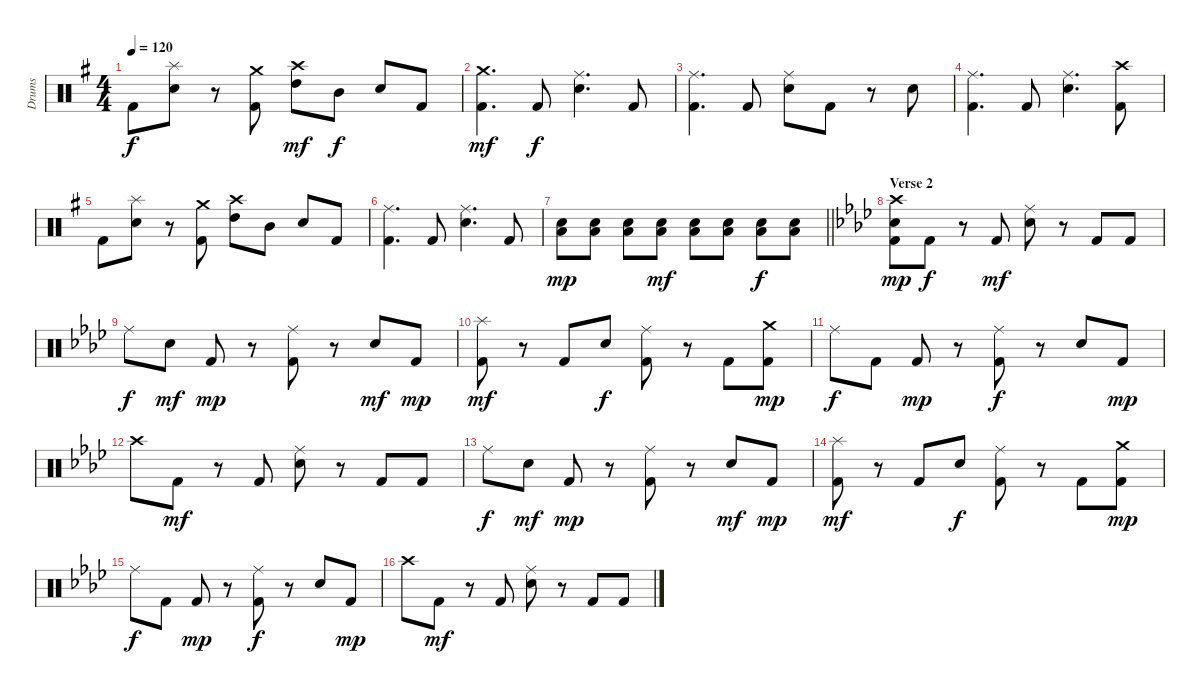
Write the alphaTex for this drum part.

\track ("Drums" "Drums") {instrument percussion}
\staff {score}
\articulation defaults
\ts (4 4)
\tempo 120
\clef neutral
\ks g "Kick (hit) 2".8{dy f}
("Splash (hit)" "Snare (hit) 2").8 r.8 ("Crash medium (hit)" "Kick (hit) 2").8 ("Crash high (hit)" "High Tom (hit)").8{dy mf} "Mid Tom (hit)".8{dy f} "Snare (hit) 2".8 "Kick (hit) 2".8 |
("Crash medium (hit)" "Kick (hit) 2").4{d dy mf} "Kick (hit) 2".8{dy f} ("Ride (middle)" "Snare (hit) 2").4{d} "Kick (hit) 2".8 |
("Ride (middle)" "Kick (hit) 2").4{d} "Kick (hit) 2".8 ("Ride (middle)" "Snare (hit) 2").8 "Kick (hit) 2".8 r.8 "Snare (hit) 2".8 |
("Ride (middle)" "Kick (hit) 2").4{d} "Kick (hit) 2".8 ("Ride (middle)" "Snare (hit) 2").4{d} ("Crash high (hit)" "Kick (hit) 2").8 |
"Kick (hit) 2".8 ("Splash (hit)" "Snare (hit) 2").8 r.8 ("Crash medium (hit)" "Kick (hit) 2").8 ("Crash high (hit)" "High Tom (hit)").8 "Mid Tom (hit)".8 "Snare (hit) 2".8 "Kick (hit) 2".8 |
("Ride (middle)" "Kick (hit) 2").4{d} "Kick (hit) 2".8 ("Ride (middle)" "Snare (hit) 2").4{d} "Kick (hit) 2".8 |
\barLineRight lightlight
("Low Floor Tom (hit)" "Snare (hit) 2").8{dy mp} ("Low Floor Tom (hit)" "Snare (hit) 2").8 ("Low Floor Tom (hit)" "Snare (hit) 2").8 ("Low Floor Tom (hit)" "Snare (hit) 2").8{dy mf} ("Low Floor Tom (hit)" "Snare (hit) 2").8 ("Low Floor Tom (hit)" "Snare (hit) 2").8 ("Low Floor Tom (hit)" "Snare (hit) 2").8{dy f} ("Low Floor Tom (hit)" "Snare (hit) 2").8 |
\section ("" "Verse 2")
\ks ab
("Crash high (hit)" "Snare (hit) 2" "Kick (hit) 2").8{dy mp volume 12} "Kick (hit) 2".8{dy f} r.8 "Kick (hit) 2".8{dy mf} ("Ride (middle)" "Snare (hit) 2").8 r.8 "Kick (hit) 2".8 "Kick (hit) 2".8 |
"Ride (middle)".8{dy f} "Snare (hit) 2".8{dy mf} "Kick (hit) 2".8{dy mp} r.8 ("Ride (middle)" "Kick (hit) 2").8 r.8 "Snare (hit) 2".8{dy mf} "Kick (hit) 2".8{dy mp} |
("Splash (hit)" "Kick (hit) 2").8{dy mf} r.8 "Kick (hit) 2".8 "Snare (hit) 2".8{dy f} ("Ride (middle)" "Kick (hit) 2").8 r.8 "Kick (hit) 2".8 ("Crash medium (hit)" "Kick (hit) 2").8{dy mp} |
"Ride (middle)".8{dy f} "Kick (hit) 2".8 "Kick (hit) 2".8{dy mp} r.8 ("Ride (middle)" "Kick (hit) 2").8{dy f} r.8 "Snare (hit) 2".8 "Kick (hit) 2".8{dy mp} |
"Crash high (hit)".8 "Kick (hit) 2".8{dy mf} r.8 "Kick (hit) 2".8 ("Ride (middle)" "Snare (hit) 2").8 r.8 "Kick (hit) 2".8 "Kick (hit) 2".8 |
"Ride (middle)".8{dy f} "Snare (hit) 2".8{dy mf} "Kick (hit) 2".8{dy mp} r.8 ("Ride (middle)" "Kick (hit) 2").8 r.8 "Snare (hit) 2".8{dy mf} "Kick (hit) 2".8{dy mp} |
("Splash (hit)" "Kick (hit) 2").8{dy mf} r.8 "Kick (hit) 2".8 "Snare (hit) 2".8{dy f} ("Ride (middle)" "Kick (hit) 2").8 r.8 "Kick (hit) 2".8 ("Crash medium (hit)" "Kick (hit) 2").8{dy mp} |
"Ride (middle)".8{dy f} "Kick (hit) 2".8 "Kick (hit) 2".8{dy mp} r.8 ("Ride (middle)" "Kick (hit) 2").8{dy f} r.8 "Snare (hit) 2".8 "Kick (hit) 2".8{dy mp} |
"Crash high (hit)".8 "Kick (hit) 2".8{dy mf} r.8 "Kick (hit) 2".8 ("Ride (middle)" "Snare (hit) 2").8 r.8 "Kick (hit) 2".8 "Kick (hit) 2".8
